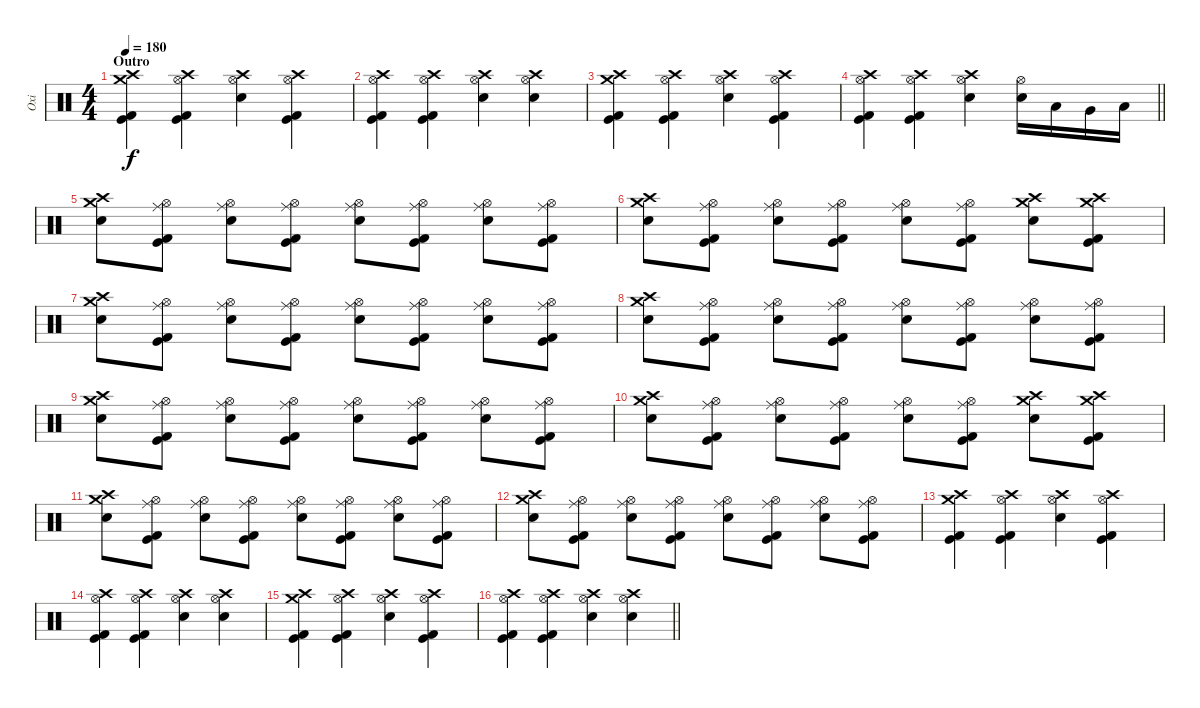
\track ("Oxi" "Oxi") {instrument percussion}
\staff {score}
\articulation defaults
\ts (4 4)
\section ("" "Outro")
\tempo 180
\clef neutral
\ks c
("Crash medium (hit)" "Crash high (hit)" "Kick (hit) 2" "Kick (hit)").4{dy f} ("Crash high (hit)" "Hi-Hat (open)" "Kick (hit) 2" "Kick (hit)").4 ("Crash high (hit)" "Hi-Hat (open)" "Electric Snare (hit)").4 ("Crash high (hit)" "Hi-Hat (open)" "Kick (hit) 2" "Kick (hit)").4 |
("Crash high (hit)" "Hi-Hat (open)" "Kick (hit) 2" "Kick (hit)").4 ("Crash high (hit)" "Hi-Hat (open)" "Kick (hit) 2" "Kick (hit)").4 ("Crash high (hit)" "Hi-Hat (open)" "Electric Snare (hit)").4 ("Crash high (hit)" "Hi-Hat (open)" "Electric Snare (hit)").4 |
("Crash medium (hit)" "Crash high (hit)" "Kick (hit) 2" "Kick (hit)").4 ("Crash high (hit)" "Hi-Hat (open)" "Kick (hit) 2" "Kick (hit)").4 ("Crash high (hit)" "Hi-Hat (open)" "Electric Snare (hit)").4 ("Crash high (hit)" "Hi-Hat (open)" "Kick (hit) 2" "Kick (hit)").4 |
\barLineRight lightlight
("Crash high (hit)" "Hi-Hat (open)" "Kick (hit) 2" "Kick (hit)").4 ("Crash high (hit)" "Hi-Hat (open)" "Kick (hit) 2" "Kick (hit)").4 ("Crash high (hit)" "Hi-Hat (open)" "Electric Snare (hit)").4 ("Hi-Hat (open)" "Electric Snare (hit)").16 "Low Tom (hit)".16 "Very Low Tom (hit)".16 "Low Floor Tom (hit)".16 |
("Crash medium (hit)" "Crash high (hit)" "Electric Snare (hit)").8 ("Hi-Hat (open)" "Ride (middle)" "Kick (hit) 2" "Kick (hit)").8 ("Hi-Hat (open)" "Ride (middle)" "Electric Snare (hit)").8 ("Hi-Hat (open)" "Ride (middle)" "Kick (hit) 2" "Kick (hit)").8 ("Hi-Hat (open)" "Ride (middle)" "Electric Snare (hit)").8 ("Hi-Hat (open)" "Ride (middle)" "Kick (hit) 2" "Kick (hit)").8 ("Hi-Hat (open)" "Ride (middle)" "Electric Snare (hit)").8 ("Hi-Hat (open)" "Ride (middle)" "Kick (hit) 2" "Kick (hit)").8 |
("Crash medium (hit)" "Crash high (hit)" "Electric Snare (hit)").8 ("Hi-Hat (open)" "Ride (middle)" "Kick (hit) 2" "Kick (hit)").8 ("Hi-Hat (open)" "Ride (middle)" "Electric Snare (hit)").8 ("Hi-Hat (open)" "Ride (middle)" "Kick (hit) 2" "Kick (hit)").8 ("Hi-Hat (open)" "Ride (middle)" "Electric Snare (hit)").8 ("Hi-Hat (open)" "Ride (middle)" "Kick (hit) 2" "Kick (hit)").8 ("Crash medium (hit)" "Crash high (hit)" "Electric Snare (hit)").8 ("Crash medium (hit)" "Crash high (hit)" "Kick (hit) 2" "Kick (hit)").8 |
("Crash medium (hit)" "Crash high (hit)" "Electric Snare (hit)").8 ("Hi-Hat (open)" "Ride (middle)" "Kick (hit) 2" "Kick (hit)").8 ("Hi-Hat (open)" "Ride (middle)" "Electric Snare (hit)").8 ("Hi-Hat (open)" "Ride (middle)" "Kick (hit) 2" "Kick (hit)").8 ("Hi-Hat (open)" "Ride (middle)" "Electric Snare (hit)").8 ("Hi-Hat (open)" "Ride (middle)" "Kick (hit) 2" "Kick (hit)").8 ("Hi-Hat (open)" "Ride (middle)" "Electric Snare (hit)").8 ("Hi-Hat (open)" "Ride (middle)" "Kick (hit) 2" "Kick (hit)").8 |
("Crash medium (hit)" "Crash high (hit)" "Electric Snare (hit)").8 ("Hi-Hat (open)" "Ride (middle)" "Kick (hit) 2" "Kick (hit)").8 ("Hi-Hat (open)" "Ride (middle)" "Electric Snare (hit)").8 ("Hi-Hat (open)" "Ride (middle)" "Kick (hit) 2" "Kick (hit)").8 ("Hi-Hat (open)" "Ride (middle)" "Electric Snare (hit)").8 ("Hi-Hat (open)" "Ride (middle)" "Kick (hit) 2" "Kick (hit)").8 ("Hi-Hat (open)" "Ride (middle)" "Electric Snare (hit)").8 ("Hi-Hat (open)" "Ride (middle)" "Kick (hit) 2" "Kick (hit)").8 |
("Crash medium (hit)" "Crash high (hit)" "Electric Snare (hit)").8 ("Hi-Hat (open)" "Ride (middle)" "Kick (hit) 2" "Kick (hit)").8 ("Hi-Hat (open)" "Ride (middle)" "Electric Snare (hit)").8 ("Hi-Hat (open)" "Ride (middle)" "Kick (hit) 2" "Kick (hit)").8 ("Hi-Hat (open)" "Ride (middle)" "Electric Snare (hit)").8 ("Hi-Hat (open)" "Ride (middle)" "Kick (hit) 2" "Kick (hit)").8 ("Hi-Hat (open)" "Ride (middle)" "Electric Snare (hit)").8 ("Hi-Hat (open)" "Ride (middle)" "Kick (hit) 2" "Kick (hit)").8 |
("Crash medium (hit)" "Crash high (hit)" "Electric Snare (hit)").8 ("Hi-Hat (open)" "Ride (middle)" "Kick (hit) 2" "Kick (hit)").8 ("Hi-Hat (open)" "Ride (middle)" "Electric Snare (hit)").8 ("Hi-Hat (open)" "Ride (middle)" "Kick (hit) 2" "Kick (hit)").8 ("Hi-Hat (open)" "Ride (middle)" "Electric Snare (hit)").8 ("Hi-Hat (open)" "Ride (middle)" "Kick (hit) 2" "Kick (hit)").8 ("Crash medium (hit)" "Crash high (hit)" "Electric Snare (hit)").8 ("Crash medium (hit)" "Crash high (hit)" "Kick (hit) 2" "Kick (hit)").8 |
("Crash medium (hit)" "Crash high (hit)" "Electric Snare (hit)").8 ("Hi-Hat (open)" "Ride (middle)" "Kick (hit) 2" "Kick (hit)").8 ("Hi-Hat (open)" "Ride (middle)" "Electric Snare (hit)").8 ("Hi-Hat (open)" "Ride (middle)" "Kick (hit) 2" "Kick (hit)").8 ("Hi-Hat (open)" "Ride (middle)" "Electric Snare (hit)").8 ("Hi-Hat (open)" "Ride (middle)" "Kick (hit) 2" "Kick (hit)").8 ("Hi-Hat (open)" "Ride (middle)" "Electric Snare (hit)").8 ("Hi-Hat (open)" "Ride (middle)" "Kick (hit) 2" "Kick (hit)").8 |
("Crash medium (hit)" "Crash high (hit)" "Electric Snare (hit)").8 ("Hi-Hat (open)" "Ride (middle)" "Kick (hit) 2" "Kick (hit)").8 ("Hi-Hat (open)" "Ride (middle)" "Electric Snare (hit)").8 ("Hi-Hat (open)" "Ride (middle)" "Kick (hit) 2" "Kick (hit)").8 ("Hi-Hat (open)" "Ride (middle)" "Electric Snare (hit)").8 ("Hi-Hat (open)" "Ride (middle)" "Kick (hit) 2" "Kick (hit)").8 ("Hi-Hat (open)" "Ride (middle)" "Electric Snare (hit)").8 ("Hi-Hat (open)" "Ride (middle)" "Kick (hit) 2" "Kick (hit)").8 |
("Crash medium (hit)" "Crash high (hit)" "Kick (hit) 2" "Kick (hit)").4 ("Crash high (hit)" "Hi-Hat (open)" "Kick (hit) 2" "Kick (hit)").4 ("Crash high (hit)" "Hi-Hat (open)" "Electric Snare (hit)").4 ("Crash high (hit)" "Hi-Hat (open)" "Kick (hit) 2" "Kick (hit)").4 |
("Crash high (hit)" "Hi-Hat (open)" "Kick (hit) 2" "Kick (hit)").4 ("Crash high (hit)" "Hi-Hat (open)" "Kick (hit) 2" "Kick (hit)").4 ("Crash high (hit)" "Hi-Hat (open)" "Electric Snare (hit)").4 ("Crash high (hit)" "Hi-Hat (open)" "Electric Snare (hit)").4 |
("Crash medium (hit)" "Crash high (hit)" "Kick (hit) 2" "Kick (hit)").4 ("Crash high (hit)" "Hi-Hat (open)" "Kick (hit) 2" "Kick (hit)").4 ("Crash high (hit)" "Hi-Hat (open)" "Electric Snare (hit)").4 ("Crash high (hit)" "Hi-Hat (open)" "Kick (hit) 2" "Kick (hit)").4 |
\barLineRight lightlight
("Crash high (hit)" "Hi-Hat (open)" "Kick (hit) 2" "Kick (hit)").4 ("Crash high (hit)" "Hi-Hat (open)" "Kick (hit) 2" "Kick (hit)").4 ("Crash high (hit)" "Hi-Hat (open)" "Electric Snare (hit)").4 ("Crash high (hit)" "Hi-Hat (open)" "Electric Snare (hit)").4
